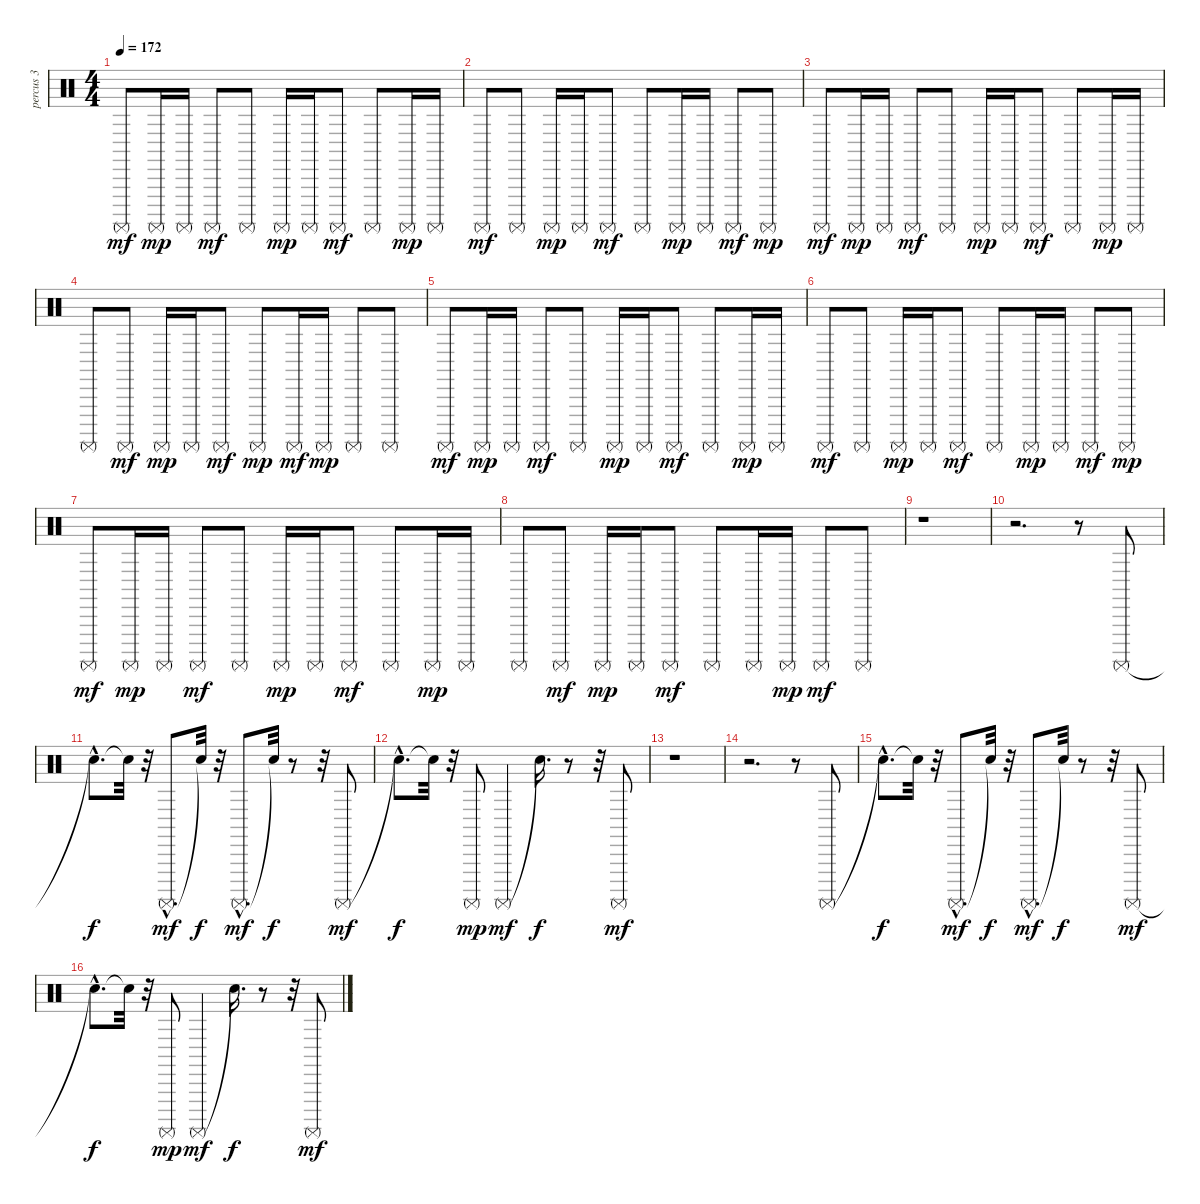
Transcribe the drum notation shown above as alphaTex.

\track ("percus 3" "percus 3") {instrument percussion}
\staff {score}
\articulation defaults
\ts (4 4)
\tempo 172
\clef neutral
\ks c "Surdo (mute)".8{dy mf} "Surdo (mute)".16{dy mp} "Surdo (mute)".16 "Surdo (mute)".8{dy mf} "Surdo (mute)".8 "Surdo (mute)".16{dy mp} "Surdo (mute)".16 "Surdo (mute)".8{dy mf} "Surdo (mute)".8 "Surdo (mute)".16{dy mp} "Surdo (mute)".16
|
"Surdo (mute)".8{dy mf} "Surdo (mute)".8 "Surdo (mute)".16{dy mp} "Surdo (mute)".16 "Surdo (mute)".8{dy mf} "Surdo (mute)".8 "Surdo (mute)".16{dy mp} "Surdo (mute)".16 "Surdo (mute)".8{dy mf} "Surdo (mute)".8{dy mp} |
"Surdo (mute)".8{dy mf} "Surdo (mute)".16{dy mp} "Surdo (mute)".16 "Surdo (mute)".8{dy mf} "Surdo (mute)".8 "Surdo (mute)".16{dy mp} "Surdo (mute)".16 "Surdo (mute)".8{dy mf} "Surdo (mute)".8 "Surdo (mute)".16{dy mp} "Surdo (mute)".16 |
"Surdo (mute)".8 "Surdo (mute)".8{dy mf} "Surdo (mute)".16{dy mp} "Surdo (mute)".16 "Surdo (mute)".8{dy mf} "Surdo (mute)".8{dy mp} "Surdo (mute)".16{dy mf} "Surdo (mute)".16{dy mp} "Surdo (mute)".8 "Surdo (mute)".8 |
"Surdo (mute)".8{dy mf} "Surdo (mute)".16{dy mp} "Surdo (mute)".16 "Surdo (mute)".8{dy mf} "Surdo (mute)".8 "Surdo (mute)".16{dy mp} "Surdo (mute)".16 "Surdo (mute)".8{dy mf} "Surdo (mute)".8 "Surdo (mute)".16{dy mp} "Surdo (mute)".16 |
"Surdo (mute)".8{dy mf} "Surdo (mute)".8 "Surdo (mute)".16{dy mp} "Surdo (mute)".16 "Surdo (mute)".8{dy mf} "Surdo (mute)".8 "Surdo (mute)".16{dy mp} "Surdo (mute)".16 "Surdo (mute)".8{dy mf} "Surdo (mute)".8{dy mp} |
"Surdo (mute)".8{dy mf} "Surdo (mute)".16{dy mp} "Surdo (mute)".16 "Surdo (mute)".8{dy mf} "Surdo (mute)".8 "Surdo (mute)".16{dy mp} "Surdo (mute)".16 "Surdo (mute)".8{dy mf} "Surdo (mute)".8 "Surdo (mute)".16{dy mp} "Surdo (mute)".16 |
"Surdo (mute)".8 "Surdo (mute)".8{dy mf} "Surdo (mute)".16{dy mp} "Surdo (mute)".16 "Surdo (mute)".8{dy mf} "Surdo (mute)".8 "Surdo (mute)".16 "Surdo (mute)".16{dy mp} "Surdo (mute)".8{dy mf} "Surdo (mute)".8 |
r.1 |
r.2{d} r.8 "Surdo (mute)".8 |
"Snare (hit)"{hac t}.8{d dy f} "Snare (hit)"{t}.32 r.32 "Surdo (mute)"{hac}.8{d dy mf} "Snare (hit)"{t}.32{dy f} r.32 "Surdo (mute)"{hac}.8{d dy mf} "Snare (hit)"{t}.32{dy f} r.8 r.32 "Surdo (mute)".8{dy mf} |
"Snare (hit)"{hac t}.8{d dy f} "Snare (hit)"{t}.32 r.32 "Surdo (mute)".8{dy mp} "Surdo (mute)".4{dy mf} "Snare (hit)"{t}.16{d dy f} r.8 r.32 "Surdo (mute)".8{dy mf} |
r.1 |
r.2{d} r.8 "Surdo (mute)".8 |
"Snare (hit)"{hac t}.8{d dy f} "Snare (hit)"{t}.32 r.32 "Surdo (mute)"{hac}.8{d dy mf} "Snare (hit)"{t}.32{dy f} r.32 "Surdo (mute)"{hac}.8{d dy mf} "Snare (hit)"{t}.32{dy f} r.8 r.32 "Surdo (mute)".8{dy mf} |
"Snare (hit)"{hac t}.8{d dy f} "Snare (hit)"{t}.32 r.32 "Surdo (mute)".8{dy mp} "Surdo (mute)".4{dy mf} "Snare (hit)"{t}.16{d dy f} r.8 r.32 "Surdo (mute)".8{dy mf}
